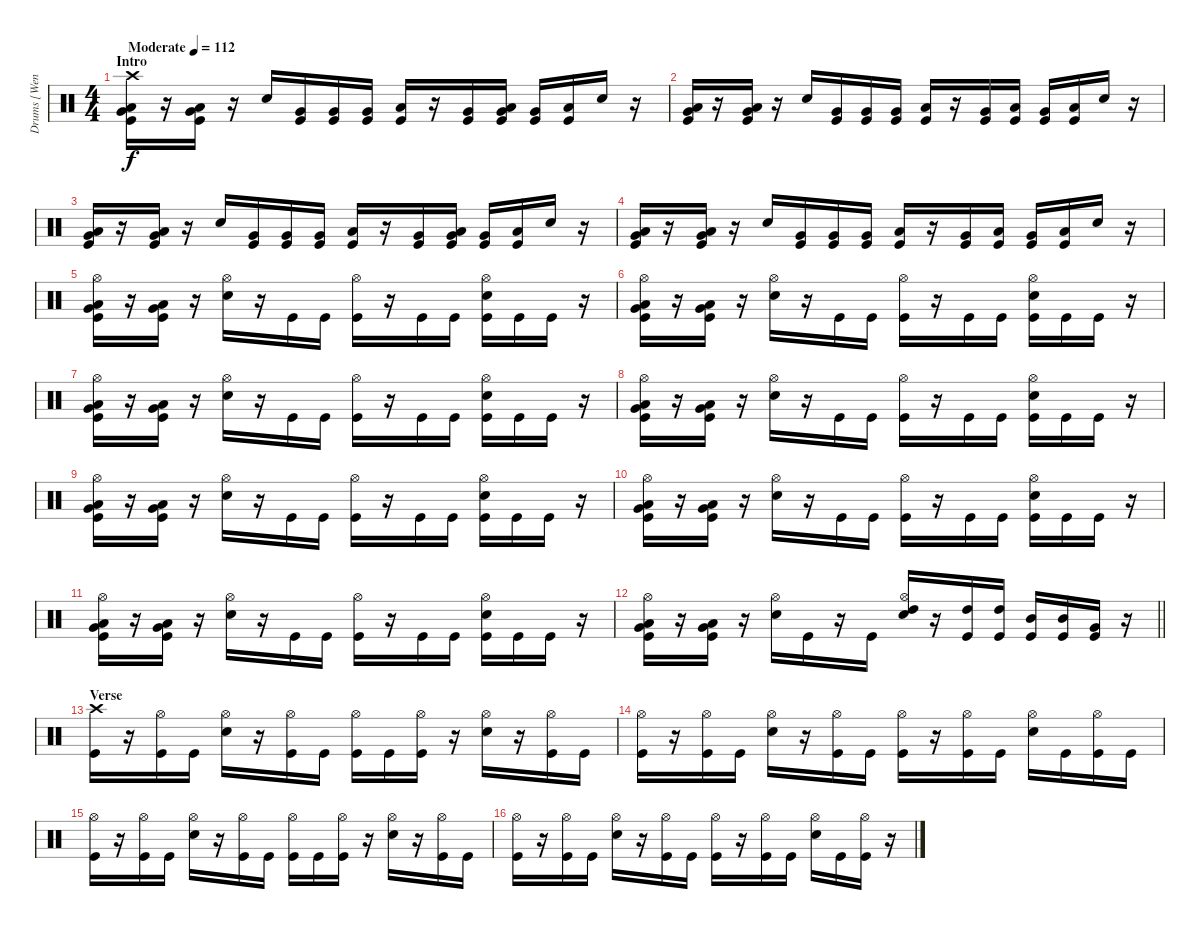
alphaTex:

\track ("Drums [Wengren]" "Drums [Wen") {instrument percussion}
\staff {score}
\articulation defaults
\ts (4 4)
\section ("" "Intro")
\tempo (112 "Moderate")
\clef neutral
\ks c
("Crash high (hit)" "Very Low Tom (hit)" "Low Floor Tom (hit)" "Kick (hit)").16{dy f} r.16 ("Very Low Tom (hit)" "Low Floor Tom (hit)" "Kick (hit)").16 r.16 "Electric Snare (hit)".16 ("Very Low Tom (hit)" "Kick (hit)").16 ("Very Low Tom (hit)" "Kick (hit)").16 ("Very Low Tom (hit)" "Kick (hit)").16 ("Low Floor Tom (hit)" "Kick (hit)").16 r.16 ("Very Low Tom (hit)" "Kick (hit)").16 ("Very Low Tom (hit)" "Low Floor Tom (hit)" "Kick (hit)").16 ("Very Low Tom (hit)" "Kick (hit)").16 ("Low Floor Tom (hit)" "Kick (hit)").16 "Electric Snare (hit)".16 r.16 |
("Very Low Tom (hit)" "Low Floor Tom (hit)" "Kick (hit)").16 r.16 ("Very Low Tom (hit)" "Low Floor Tom (hit)" "Kick (hit)").16 r.16 "Electric Snare (hit)".16 ("Very Low Tom (hit)" "Kick (hit)").16 ("Very Low Tom (hit)" "Kick (hit)").16 ("Very Low Tom (hit)" "Kick (hit)").16 ("Low Floor Tom (hit)" "Kick (hit)").16 r.16 ("Very Low Tom (hit)" "Kick (hit)").16 ("Low Floor Tom (hit)" "Kick (hit)").16 ("Very Low Tom (hit)" "Kick (hit)").16 ("Low Floor Tom (hit)" "Kick (hit)").16 "Electric Snare (hit)".16 r.16 |
("Very Low Tom (hit)" "Low Floor Tom (hit)" "Kick (hit)").16 r.16 ("Very Low Tom (hit)" "Low Floor Tom (hit)" "Kick (hit)").16 r.16 "Electric Snare (hit)".16 ("Very Low Tom (hit)" "Kick (hit)").16 ("Very Low Tom (hit)" "Kick (hit)").16 ("Very Low Tom (hit)" "Kick (hit)").16 ("Low Floor Tom (hit)" "Kick (hit)").16 r.16 ("Very Low Tom (hit)" "Kick (hit)").16 ("Very Low Tom (hit)" "Low Floor Tom (hit)" "Kick (hit)").16 ("Very Low Tom (hit)" "Kick (hit)").16 ("Low Floor Tom (hit)" "Kick (hit)").16 "Electric Snare (hit)".16 r.16 |
("Very Low Tom (hit)" "Low Floor Tom (hit)" "Kick (hit)").16 r.16 ("Very Low Tom (hit)" "Low Floor Tom (hit)" "Kick (hit)").16 r.16 "Electric Snare (hit)".16 ("Very Low Tom (hit)" "Kick (hit)").16 ("Very Low Tom (hit)" "Kick (hit)").16 ("Very Low Tom (hit)" "Kick (hit)").16 ("Low Floor Tom (hit)" "Kick (hit)").16 r.16 ("Very Low Tom (hit)" "Kick (hit)").16 ("Low Floor Tom (hit)" "Kick (hit)").16 ("Very Low Tom (hit)" "Kick (hit)").16 ("Low Floor Tom (hit)" "Kick (hit)").16 "Electric Snare (hit)".16 r.16 |
("Hi-Hat (open)" "Very Low Tom (hit)" "Low Floor Tom (hit)" "Kick (hit)").16 r.16 ("Very Low Tom (hit)" "Low Floor Tom (hit)" "Kick (hit)").16 r.16 ("Hi-Hat (open)" "Electric Snare (hit)").16 r.16 "Kick (hit)".16 "Kick (hit)".16 ("Hi-Hat (open)" "Kick (hit)").16 r.16 "Kick (hit)".16 "Kick (hit)".16 ("Hi-Hat (open)" "Electric Snare (hit)" "Kick (hit)").16 "Kick (hit)".16 "Kick (hit)".16 r.16 |
("Hi-Hat (open)" "Very Low Tom (hit)" "Low Floor Tom (hit)" "Kick (hit)").16 r.16 ("Very Low Tom (hit)" "Low Floor Tom (hit)" "Kick (hit)").16 r.16 ("Hi-Hat (open)" "Electric Snare (hit)").16 r.16 "Kick (hit)".16 "Kick (hit)".16 ("Hi-Hat (open)" "Kick (hit)").16 r.16 "Kick (hit)".16 "Kick (hit)".16 ("Hi-Hat (open)" "Electric Snare (hit)" "Kick (hit)").16 "Kick (hit)".16 "Kick (hit)".16 r.16 |
("Hi-Hat (open)" "Very Low Tom (hit)" "Low Floor Tom (hit)" "Kick (hit)").16 r.16 ("Very Low Tom (hit)" "Low Floor Tom (hit)" "Kick (hit)").16 r.16 ("Hi-Hat (open)" "Electric Snare (hit)").16 r.16 "Kick (hit)".16 "Kick (hit)".16 ("Hi-Hat (open)" "Kick (hit)").16 r.16 "Kick (hit)".16 "Kick (hit)".16 ("Hi-Hat (open)" "Electric Snare (hit)" "Kick (hit)").16 "Kick (hit)".16 "Kick (hit)".16 r.16 |
("Hi-Hat (open)" "Very Low Tom (hit)" "Low Floor Tom (hit)" "Kick (hit)").16 r.16 ("Very Low Tom (hit)" "Low Floor Tom (hit)" "Kick (hit)").16 r.16 ("Hi-Hat (open)" "Electric Snare (hit)").16 r.16 "Kick (hit)".16 "Kick (hit)".16 ("Hi-Hat (open)" "Kick (hit)").16 r.16 "Kick (hit)".16 "Kick (hit)".16 ("Hi-Hat (open)" "Electric Snare (hit)" "Kick (hit)").16 "Kick (hit)".16 "Kick (hit)".16 r.16 |
("Hi-Hat (open)" "Very Low Tom (hit)" "Low Floor Tom (hit)" "Kick (hit)").16 r.16 ("Very Low Tom (hit)" "Low Floor Tom (hit)" "Kick (hit)").16 r.16 ("Hi-Hat (open)" "Electric Snare (hit)").16 r.16 "Kick (hit)".16 "Kick (hit)".16 ("Hi-Hat (open)" "Kick (hit)").16 r.16 "Kick (hit)".16 "Kick (hit)".16 ("Hi-Hat (open)" "Electric Snare (hit)" "Kick (hit)").16 "Kick (hit)".16 "Kick (hit)".16 r.16 |
("Hi-Hat (open)" "Very Low Tom (hit)" "Low Floor Tom (hit)" "Kick (hit)").16 r.16 ("Very Low Tom (hit)" "Low Floor Tom (hit)" "Kick (hit)").16 r.16 ("Hi-Hat (open)" "Electric Snare (hit)").16 r.16 "Kick (hit)".16 "Kick (hit)".16 ("Hi-Hat (open)" "Kick (hit)").16 r.16 "Kick (hit)".16 "Kick (hit)".16 ("Hi-Hat (open)" "Electric Snare (hit)" "Kick (hit)").16 "Kick (hit)".16 "Kick (hit)".16 r.16 |
("Hi-Hat (open)" "Very Low Tom (hit)" "Low Floor Tom (hit)" "Kick (hit)").16 r.16 ("Very Low Tom (hit)" "Low Floor Tom (hit)" "Kick (hit)").16 r.16 ("Hi-Hat (open)" "Electric Snare (hit)").16 r.16 "Kick (hit)".16 "Kick (hit)".16 ("Hi-Hat (open)" "Kick (hit)").16 r.16 "Kick (hit)".16 "Kick (hit)".16 ("Hi-Hat (open)" "Electric Snare (hit)" "Kick (hit)").16 "Kick (hit)".16 "Kick (hit)".16 r.16 |
\barLineRight lightlight
("Hi-Hat (open)" "Very Low Tom (hit)" "Low Floor Tom (hit)" "Kick (hit)").16 r.16 ("Very Low Tom (hit)" "Low Floor Tom (hit)" "Kick (hit)").16 r.16 ("Hi-Hat (open)" "Electric Snare (hit)").16 "Kick (hit)".16 r.16 "Kick (hit)".16 ("Hi-Hat (open)" "High Tom (hit)" "Electric Snare (hit)").16 r.16 ("High Tom (hit)" "Kick (hit)").16 ("High Tom (hit)" "Kick (hit)").16 ("Mid Tom (hit)" "Kick (hit)").16 ("Mid Tom (hit)" "Kick (hit)").16 ("Very Low Tom (hit)" "Kick (hit)").16 r.16 |
\section ("" "Verse")
("Crash high (hit)" "Kick (hit)").16 r.16 ("Hi-Hat (open)" "Kick (hit)").16 "Kick (hit)".16 ("Hi-Hat (open)" "Electric Snare (hit)").16 r.16 ("Hi-Hat (open)" "Kick (hit)").16 "Kick (hit)".16 ("Hi-Hat (open)" "Kick (hit)").16 "Kick (hit)".16 ("Hi-Hat (open)" "Kick (hit)").16 r.16 ("Hi-Hat (open)" "Electric Snare (hit)").16 r.16 ("Hi-Hat (open)" "Kick (hit)").16 "Kick (hit)".16 |
("Hi-Hat (open)" "Kick (hit)").16 r.16 ("Hi-Hat (open)" "Kick (hit)").16 "Kick (hit)".16 ("Hi-Hat (open)" "Electric Snare (hit)").16 r.16 ("Hi-Hat (open)" "Kick (hit)").16 "Kick (hit)".16 ("Hi-Hat (open)" "Kick (hit)").16 r.16 ("Hi-Hat (open)" "Kick (hit)").16 "Kick (hit)".16 ("Hi-Hat (open)" "Electric Snare (hit)").16 "Kick (hit)".16 ("Hi-Hat (open)" "Kick (hit)").16 "Kick (hit)".16 |
("Hi-Hat (open)" "Kick (hit)").16 r.16 ("Hi-Hat (open)" "Kick (hit)").16 "Kick (hit)".16 ("Hi-Hat (open)" "Electric Snare (hit)").16 r.16 ("Hi-Hat (open)" "Kick (hit)").16 "Kick (hit)".16 ("Hi-Hat (open)" "Kick (hit)").16 "Kick (hit)".16 ("Hi-Hat (open)" "Kick (hit)").16 r.16 ("Hi-Hat (open)" "Electric Snare (hit)").16 r.16 ("Hi-Hat (open)" "Kick (hit)").16 "Kick (hit)".16 |
("Hi-Hat (open)" "Kick (hit)").16 r.16 ("Hi-Hat (open)" "Kick (hit)").16 "Kick (hit)".16 ("Hi-Hat (open)" "Electric Snare (hit)").16 r.16 ("Hi-Hat (open)" "Kick (hit)").16 "Kick (hit)".16 ("Hi-Hat (open)" "Kick (hit)").16 r.16 ("Hi-Hat (open)" "Kick (hit)").16 "Kick (hit)".16 ("Hi-Hat (open)" "Electric Snare (hit)").16 "Kick (hit)".16 ("Hi-Hat (open)" "Kick (hit)").16 r.16
